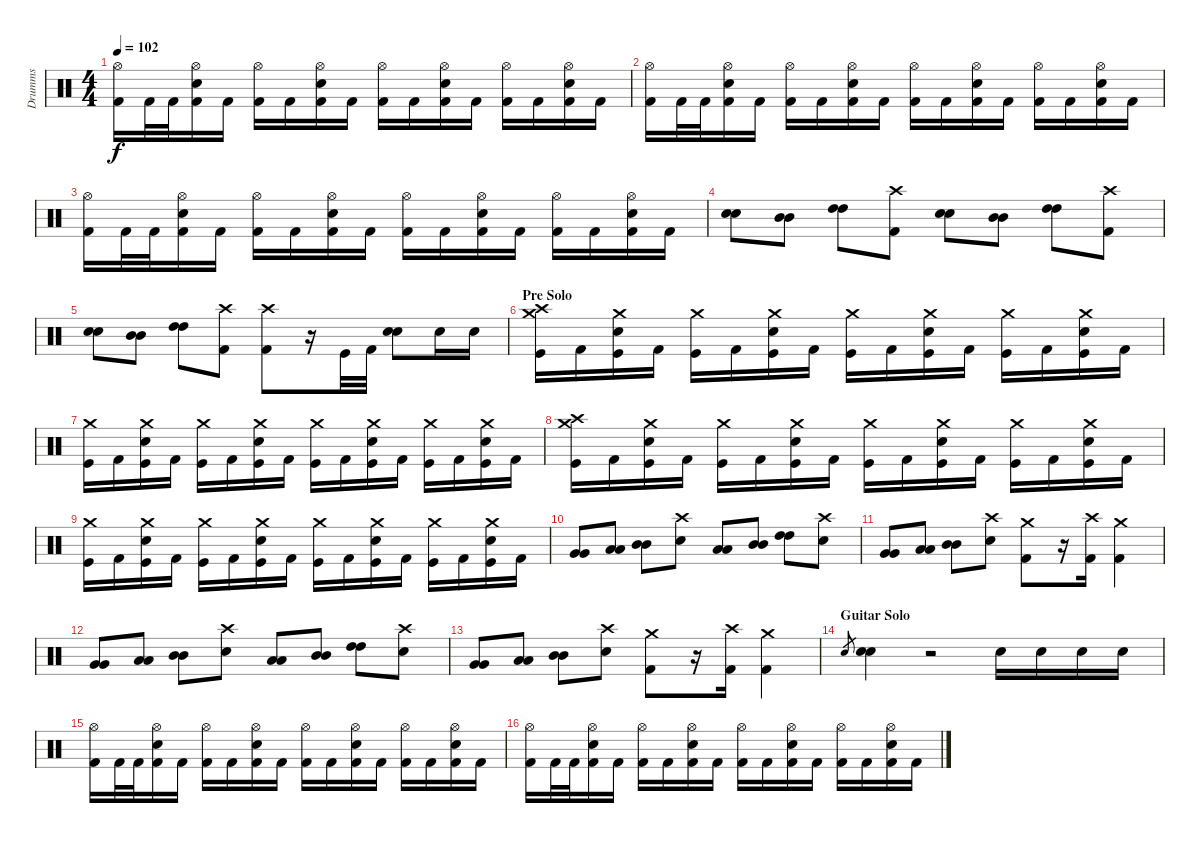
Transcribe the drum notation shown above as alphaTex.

\track ("Drumms" "Drumms") {instrument percussion}
\staff {score}
\articulation defaults
\ts (4 4)
\tempo 102
\clef neutral
\ks c
("Hi-Hat (open)" "Kick (hit) 2").16{dy f} "Kick (hit) 2".32 "Kick (hit) 2".32 ("Hi-Hat (open)" "Snare (hit) 2" "Kick (hit) 2").16 "Kick (hit) 2".16 ("Hi-Hat (open)" "Kick (hit) 2").16 "Kick (hit) 2".16 ("Hi-Hat (open)" "Snare (hit) 2" "Kick (hit) 2").16 "Kick (hit) 2".16 ("Hi-Hat (open)" "Kick (hit) 2").16 "Kick (hit) 2".16 ("Hi-Hat (open)" "Snare (hit) 2" "Kick (hit) 2").16 "Kick (hit) 2".16 ("Hi-Hat (open)" "Kick (hit) 2").16 "Kick (hit) 2".16 ("Hi-Hat (open)" "Snare (hit) 2" "Kick (hit) 2").16 "Kick (hit) 2".16 |
("Hi-Hat (open)" "Kick (hit) 2").16 "Kick (hit) 2".32 "Kick (hit) 2".32 ("Hi-Hat (open)" "Snare (hit) 2" "Kick (hit) 2").16 "Kick (hit) 2".16 ("Hi-Hat (open)" "Kick (hit) 2").16 "Kick (hit) 2".16 ("Hi-Hat (open)" "Snare (hit) 2" "Kick (hit) 2").16 "Kick (hit) 2".16 ("Hi-Hat (open)" "Kick (hit) 2").16 "Kick (hit) 2".16 ("Hi-Hat (open)" "Snare (hit) 2" "Kick (hit) 2").16 "Kick (hit) 2".16 ("Hi-Hat (open)" "Kick (hit) 2").16 "Kick (hit) 2".16 ("Hi-Hat (open)" "Snare (hit) 2" "Kick (hit) 2").16 "Kick (hit) 2".16 |
("Hi-Hat (open)" "Kick (hit) 2").16 "Kick (hit) 2".32 "Kick (hit) 2".32 ("Hi-Hat (open)" "Snare (hit) 2" "Kick (hit) 2").16 "Kick (hit) 2".16 ("Hi-Hat (open)" "Kick (hit) 2").16 "Kick (hit) 2".16 ("Hi-Hat (open)" "Snare (hit) 2" "Kick (hit) 2").16 "Kick (hit) 2".16 ("Hi-Hat (open)" "Kick (hit) 2").16 "Kick (hit) 2".16 ("Hi-Hat (open)" "Snare (hit) 2" "Kick (hit) 2").16 "Kick (hit) 2".16 ("Hi-Hat (open)" "Kick (hit) 2").16 "Kick (hit) 2".16 ("Hi-Hat (open)" "Snare (hit) 2" "Kick (hit) 2").16 "Kick (hit) 2".16 |
("Snare (hit) 2" "Snare (hit) 2").8 ("Mid Tom (hit)" "Mid Tom (hit)").8 ("High Tom (hit)" "High Tom (hit)").8 ("Crash high (hit)" "Kick (hit) 2").8 ("Snare (hit) 2" "Snare (hit) 2").8 ("Mid Tom (hit)" "Mid Tom (hit)").8 ("High Tom (hit)" "High Tom (hit)").8 ("Crash high (hit)" "Kick (hit) 2").8 |
("Snare (hit) 2" "Snare (hit) 2").8 ("Mid Tom (hit)" "Mid Tom (hit)").8 ("High Tom (hit)" "High Tom (hit)").8 ("Crash high (hit)" "Kick (hit) 2").8 ("Crash high (hit)" "Kick (hit) 2").8 r.16 "Kick (hit)".32 "Kick (hit) 2".32 ("Snare (hit) 2" "Snare (hit) 2").8 "Snare (hit) 2".16 "Snare (hit) 2".16 |
\section ("" "Pre Solo")
("Crash medium (hit)" "Crash high (hit)" "Kick (hit)").16 "Kick (hit) 2".16 ("Crash medium (hit)" "Snare (hit) 2" "Kick (hit)").16 "Kick (hit) 2".16 ("Crash medium (hit)" "Kick (hit)").16 "Kick (hit) 2".16 ("Crash medium (hit)" "Snare (hit) 2" "Kick (hit)").16 "Kick (hit) 2".16 ("Crash medium (hit)" "Kick (hit)").16 "Kick (hit) 2".16 ("Crash medium (hit)" "Snare (hit) 2" "Kick (hit)").16 "Kick (hit) 2".16 ("Crash medium (hit)" "Kick (hit)").16 "Kick (hit) 2".16 ("Crash medium (hit)" "Snare (hit) 2" "Kick (hit)").16 "Kick (hit) 2".16 |
("Crash medium (hit)" "Kick (hit)").16 "Kick (hit) 2".16 ("Crash medium (hit)" "Snare (hit) 2" "Kick (hit)").16 "Kick (hit) 2".16 ("Crash medium (hit)" "Kick (hit)").16 "Kick (hit) 2".16 ("Crash medium (hit)" "Snare (hit) 2" "Kick (hit)").16 "Kick (hit) 2".16 ("Crash medium (hit)" "Kick (hit)").16 "Kick (hit) 2".16 ("Crash medium (hit)" "Snare (hit) 2" "Kick (hit)").16 "Kick (hit) 2".16 ("Crash medium (hit)" "Kick (hit)").16 "Kick (hit) 2".16 ("Crash medium (hit)" "Snare (hit) 2" "Kick (hit)").16 "Kick (hit) 2".16 |
("Crash medium (hit)" "Crash high (hit)" "Kick (hit)").16 "Kick (hit) 2".16 ("Crash medium (hit)" "Snare (hit) 2" "Kick (hit)").16 "Kick (hit) 2".16 ("Crash medium (hit)" "Kick (hit)").16 "Kick (hit) 2".16 ("Crash medium (hit)" "Snare (hit) 2" "Kick (hit)").16 "Kick (hit) 2".16 ("Crash medium (hit)" "Kick (hit)").16 "Kick (hit) 2".16 ("Crash medium (hit)" "Snare (hit) 2" "Kick (hit)").16 "Kick (hit) 2".16 ("Crash medium (hit)" "Kick (hit)").16 "Kick (hit) 2".16 ("Crash medium (hit)" "Snare (hit) 2" "Kick (hit)").16 "Kick (hit) 2".16 |
("Crash medium (hit)" "Kick (hit)").16 "Kick (hit) 2".16 ("Crash medium (hit)" "Snare (hit) 2" "Kick (hit)").16 "Kick (hit) 2".16 ("Crash medium (hit)" "Kick (hit)").16 "Kick (hit) 2".16 ("Crash medium (hit)" "Snare (hit) 2" "Kick (hit)").16 "Kick (hit) 2".16 ("Crash medium (hit)" "Kick (hit)").16 "Kick (hit) 2".16 ("Crash medium (hit)" "Snare (hit) 2" "Kick (hit)").16 "Kick (hit) 2".16 ("Crash medium (hit)" "Kick (hit)").16 "Kick (hit) 2".16 ("Crash medium (hit)" "Snare (hit) 2" "Kick (hit)").16 "Kick (hit) 2".16 |
("Very Low Tom (hit)" "Very Low Tom (hit)").8 ("Low Tom (hit)" "Low Tom (hit)").8 ("Mid Tom (hit)" "Mid Tom (hit)").8 ("Crash high (hit)" "Snare (hit) 2").8 ("Low Tom (hit)" "Low Tom (hit)").8 ("Mid Tom (hit)" "Mid Tom (hit)").8 ("High Tom (hit)" "High Tom (hit)").8 ("Crash high (hit)" "Snare (hit) 2").8 |
("Very Low Tom (hit)" "Very Low Tom (hit)").8 ("Low Tom (hit)" "Low Tom (hit)").8 ("Mid Tom (hit)" "Mid Tom (hit)").8 ("Crash high (hit)" "Snare (hit) 2").8 ("Crash medium (hit)" "Kick (hit) 2").8 r.16 ("Crash high (hit)" "Kick (hit) 2").16 ("Crash medium (hit)" "Kick (hit) 2").4 |
("Very Low Tom (hit)" "Very Low Tom (hit)").8 ("Low Tom (hit)" "Low Tom (hit)").8 ("Mid Tom (hit)" "Mid Tom (hit)").8 ("Crash high (hit)" "Snare (hit) 2").8 ("Low Tom (hit)" "Low Tom (hit)").8 ("Mid Tom (hit)" "Mid Tom (hit)").8 ("High Tom (hit)" "High Tom (hit)").8 ("Crash high (hit)" "Snare (hit) 2").8 |
("Very Low Tom (hit)" "Very Low Tom (hit)").8 ("Low Tom (hit)" "Low Tom (hit)").8 ("Mid Tom (hit)" "Mid Tom (hit)").8 ("Crash high (hit)" "Snare (hit) 2").8 ("Crash medium (hit)" "Kick (hit) 2").8 r.16 ("Crash high (hit)" "Kick (hit) 2").16 ("Crash medium (hit)" "Kick (hit) 2").4 |
\section ("" "Guitar Solo")
"Snare (hit) 2".8{gr} ("Electric Snare (hit)" "Snare (hit) 2").4 r.2 "Snare (hit) 2".16 "Snare (hit) 2".16 "Snare (hit) 2".16 "Snare (hit) 2".16 |
("Hi-Hat (open)" "Kick (hit) 2").16 "Kick (hit) 2".32 "Kick (hit) 2".32 ("Hi-Hat (open)" "Snare (hit) 2" "Kick (hit) 2").16 "Kick (hit) 2".16 ("Hi-Hat (open)" "Kick (hit) 2").16 "Kick (hit) 2".16 ("Hi-Hat (open)" "Snare (hit) 2" "Kick (hit) 2").16 "Kick (hit) 2".16 ("Hi-Hat (open)" "Kick (hit) 2").16 "Kick (hit) 2".16 ("Hi-Hat (open)" "Snare (hit) 2" "Kick (hit) 2").16 "Kick (hit) 2".16 ("Hi-Hat (open)" "Kick (hit) 2").16 "Kick (hit) 2".16 ("Hi-Hat (open)" "Snare (hit) 2" "Kick (hit) 2").16 "Kick (hit) 2".16 |
("Hi-Hat (open)" "Kick (hit) 2").16 "Kick (hit) 2".32 "Kick (hit) 2".32 ("Hi-Hat (open)" "Snare (hit) 2" "Kick (hit) 2").16 "Kick (hit) 2".16 ("Hi-Hat (open)" "Kick (hit) 2").16 "Kick (hit) 2".16 ("Hi-Hat (open)" "Snare (hit) 2" "Kick (hit) 2").16 "Kick (hit) 2".16 ("Hi-Hat (open)" "Kick (hit) 2").16 "Kick (hit) 2".16 ("Hi-Hat (open)" "Snare (hit) 2" "Kick (hit) 2").16 "Kick (hit) 2".16 ("Hi-Hat (open)" "Kick (hit) 2").16 "Kick (hit) 2".16 ("Hi-Hat (open)" "Snare (hit) 2" "Kick (hit) 2").16 "Kick (hit) 2".16
